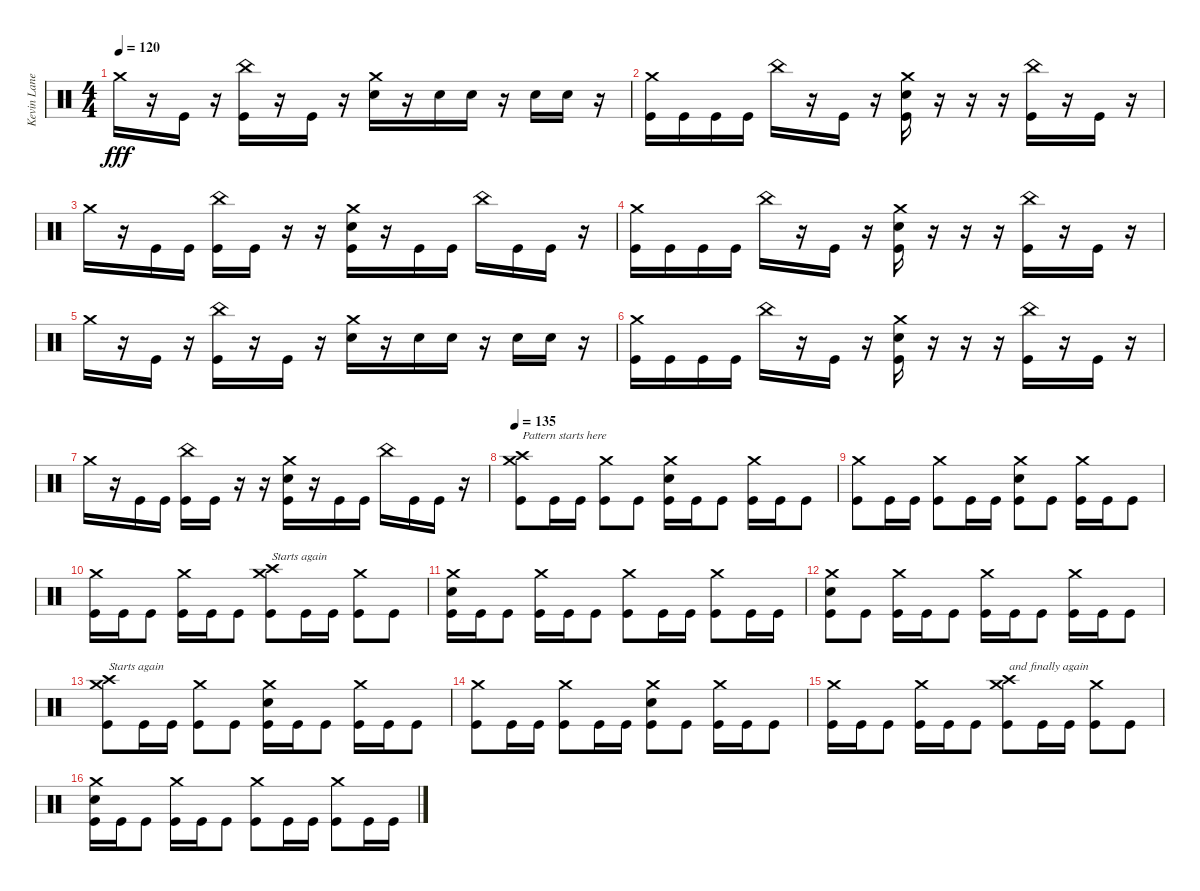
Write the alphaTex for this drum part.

\track ("Kevin Lane" "Kevin Lane") {instrument percussion}
\staff {score}
\articulation defaults
\ts (4 4)
\tempo 120
\clef neutral
\ks c "Crash medium (hit)".16{dy fff}
r.16 "Kick (hit)".16 r.16 ("China (hit)" "Kick (hit)").16 r.16 "Kick (hit)".16 r.16 ("Crash medium (hit)" "Snare (hit) 2").16 r.16 "Snare (hit) 2".16 "Snare (hit) 2".16 r.16 "Snare (hit) 2".16 "Snare (hit) 2".16 r.16 |
("Crash medium (hit)" "Kick (hit)").16 "Kick (hit)".16 "Kick (hit)".16 "Kick (hit)".16 "China (hit)".16 r.16 "Kick (hit)".16 r.16 ("Crash medium (hit)" "Snare (hit) 2" "Kick (hit)").16 r.16 r.16 r.16 ("China (hit)" "Kick (hit)").16 r.16 "Kick (hit)".16 r.16 |
"Crash medium (hit)".16 r.16 "Kick (hit)".16 "Kick (hit)".16 ("China (hit)" "Kick (hit)").16 "Kick (hit)".16 r.16 r.16 ("Crash medium (hit)" "Snare (hit) 2" "Kick (hit)").16 r.16 "Kick (hit)".16 "Kick (hit)".16 "China (hit)".16 "Kick (hit)".16 "Kick (hit)".16 r.16 |
("Crash medium (hit)" "Kick (hit)").16 "Kick (hit)".16 "Kick (hit)".16 "Kick (hit)".16 "China (hit)".16 r.16 "Kick (hit)".16 r.16 ("Crash medium (hit)" "Snare (hit) 2" "Kick (hit)").16 r.16 r.16 r.16 ("China (hit)" "Kick (hit)").16 r.16 "Kick (hit)".16 r.16 |
"Crash medium (hit)".16 r.16 "Kick (hit)".16 r.16 ("China (hit)" "Kick (hit)").16 r.16 "Kick (hit)".16 r.16 ("Crash medium (hit)" "Snare (hit) 2").16 r.16 "Snare (hit) 2".16 "Snare (hit) 2".16 r.16 "Snare (hit) 2".16 "Snare (hit) 2".16 r.16 |
("Crash medium (hit)" "Kick (hit)").16 "Kick (hit)".16 "Kick (hit)".16 "Kick (hit)".16 "China (hit)".16 r.16 "Kick (hit)".16 r.16 ("Crash medium (hit)" "Snare (hit) 2" "Kick (hit)").16 r.16 r.16 r.16 ("China (hit)" "Kick (hit)").16 r.16 "Kick (hit)".16 r.16 |
"Crash medium (hit)".16 r.16 "Kick (hit)".16 "Kick (hit)".16 ("China (hit)" "Kick (hit)").16 "Kick (hit)".16 r.16 r.16 ("Crash medium (hit)" "Snare (hit) 2" "Kick (hit)").16 r.16 "Kick (hit)".16 "Kick (hit)".16 "China (hit)".16 "Kick (hit)".16 "Kick (hit)".16 r.16 |
\tempo 135
("Crash high (hit)" "Crash medium (hit)" "Kick (hit)").8{txt "Pattern starts here"} "Kick (hit)".16 "Kick (hit)".16 ("Crash medium (hit)" "Kick (hit)").8 "Kick (hit)".8 ("Crash medium (hit)" "Snare (hit) 2" "Kick (hit)").16 "Kick (hit)".16 "Kick (hit)".8 ("Crash medium (hit)" "Kick (hit)").16 "Kick (hit)".16 "Kick (hit)".8 |
("Crash medium (hit)" "Kick (hit)").8 "Kick (hit)".16 "Kick (hit)".16 ("Crash medium (hit)" "Kick (hit)").8 "Kick (hit)".16 "Kick (hit)".16 ("Crash medium (hit)" "Snare (hit) 2" "Kick (hit)").8 "Kick (hit)".8 ("Crash medium (hit)" "Kick (hit)").16 "Kick (hit)".16 "Kick (hit)".8 |
("Crash medium (hit)" "Kick (hit)").16 "Kick (hit)".16 "Kick (hit)".8 ("Crash medium (hit)" "Kick (hit)").16 "Kick (hit)".16 "Kick (hit)".8 ("Crash high (hit)" "Crash medium (hit)" "Kick (hit)").8{txt "Starts again"} "Kick (hit)".16 "Kick (hit)".16 ("Crash medium (hit)" "Kick (hit)").8 "Kick (hit)".8 |
("Crash medium (hit)" "Snare (hit) 2" "Kick (hit)").16 "Kick (hit)".16 "Kick (hit)".8 ("Crash medium (hit)" "Kick (hit)").16 "Kick (hit)".16 "Kick (hit)".8 ("Crash medium (hit)" "Kick (hit)").8 "Kick (hit)".16 "Kick (hit)".16 ("Crash medium (hit)" "Kick (hit)").8 "Kick (hit)".16 "Kick (hit)".16 |
("Crash medium (hit)" "Snare (hit) 2" "Kick (hit)").8 "Kick (hit)".8 ("Crash medium (hit)" "Kick (hit)").16 "Kick (hit)".16 "Kick (hit)".8 ("Crash medium (hit)" "Kick (hit)").16 "Kick (hit)".16 "Kick (hit)".8 ("Crash medium (hit)" "Kick (hit)").16 "Kick (hit)".16 "Kick (hit)".8 |
("Crash high (hit)" "Crash medium (hit)" "Kick (hit)").8{txt "Starts again"} "Kick (hit)".16 "Kick (hit)".16 ("Crash medium (hit)" "Kick (hit)").8 "Kick (hit)".8 ("Crash medium (hit)" "Snare (hit) 2" "Kick (hit)").16{volume 13} "Kick (hit)".16 "Kick (hit)".8 ("Crash medium (hit)" "Kick (hit)").16 "Kick (hit)".16 "Kick (hit)".8 |
("Crash medium (hit)" "Kick (hit)").8 "Kick (hit)".16 "Kick (hit)".16 ("Crash medium (hit)" "Kick (hit)").8 "Kick (hit)".16 "Kick (hit)".16 ("Crash medium (hit)" "Snare (hit) 2" "Kick (hit)").8 "Kick (hit)".8 ("Crash medium (hit)" "Kick (hit)").16 "Kick (hit)".16 "Kick (hit)".8 |
("Crash medium (hit)" "Kick (hit)").16 "Kick (hit)".16 "Kick (hit)".8 ("Crash medium (hit)" "Kick (hit)").16 "Kick (hit)".16 "Kick (hit)".8 ("Crash high (hit)" "Crash medium (hit)" "Kick (hit)").8{txt "and finally again "} "Kick (hit)".16 "Kick (hit)".16 ("Crash medium (hit)" "Kick (hit)").8 "Kick (hit)".8 |
("Crash medium (hit)" "Snare (hit) 2" "Kick (hit)").16 "Kick (hit)".16 "Kick (hit)".8 ("Crash medium (hit)" "Kick (hit)").16 "Kick (hit)".16 "Kick (hit)".8 ("Crash medium (hit)" "Kick (hit)").8 "Kick (hit)".16 "Kick (hit)".16 ("Crash medium (hit)" "Kick (hit)").8 "Kick (hit)".16 "Kick (hit)".16
